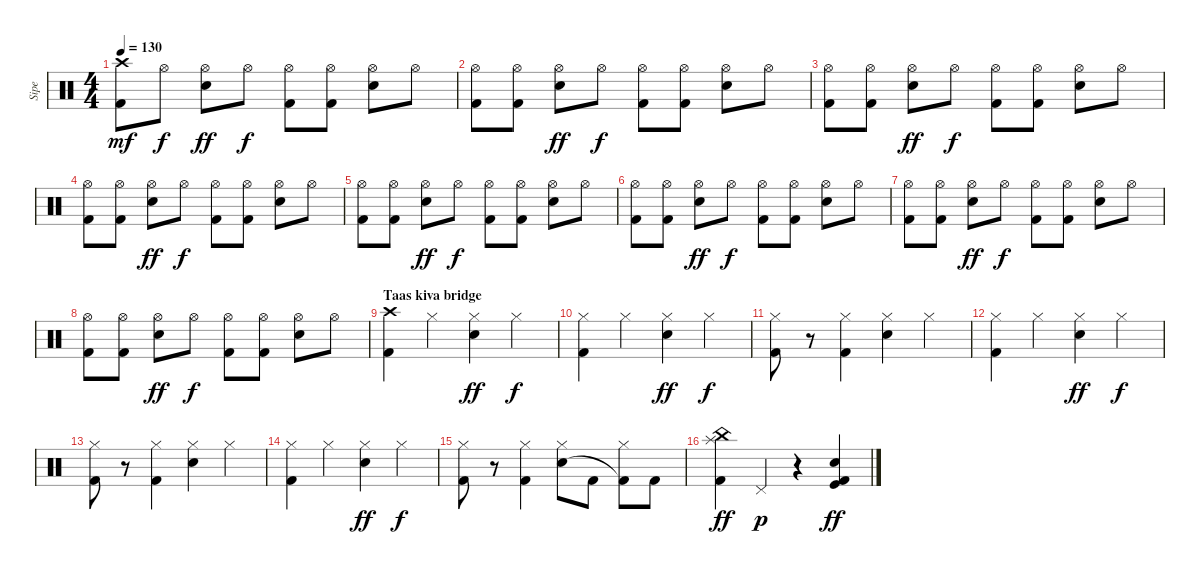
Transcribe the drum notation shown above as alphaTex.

\track ("Sipe" "Sipe") {instrument percussion}
\staff {score}
\articulation defaults
\ts (4 4)
\tempo 130
\clef neutral
\ks c
("Crash high (hit)" "Kick (hit) 2").8{dy mf} "Hi-Hat (open)".8{dy f} ("Hi-Hat (open)" "Electric Snare (hit)").8{dy ff} "Hi-Hat (open)".8{dy f} ("Hi-Hat (open)" "Kick (hit) 2").8 ("Hi-Hat (open)" "Kick (hit) 2").8 ("Hi-Hat (open)" "Electric Snare (hit)").8 "Hi-Hat (open)".8 |
("Hi-Hat (open)" "Kick (hit) 2").8 ("Hi-Hat (open)" "Kick (hit) 2").8 ("Hi-Hat (open)" "Electric Snare (hit)").8{dy ff} "Hi-Hat (open)".8{dy f} ("Hi-Hat (open)" "Kick (hit) 2").8 ("Hi-Hat (open)" "Kick (hit) 2").8 ("Hi-Hat (open)" "Electric Snare (hit)").8 "Hi-Hat (open)".8 |
("Hi-Hat (open)" "Kick (hit) 2").8 ("Hi-Hat (open)" "Kick (hit) 2").8 ("Hi-Hat (open)" "Electric Snare (hit)").8{dy ff} "Hi-Hat (open)".8{dy f} ("Hi-Hat (open)" "Kick (hit) 2").8 ("Hi-Hat (open)" "Kick (hit) 2").8 ("Hi-Hat (open)" "Electric Snare (hit)").8 "Hi-Hat (open)".8 |
("Hi-Hat (open)" "Kick (hit) 2").8 ("Hi-Hat (open)" "Kick (hit) 2").8 ("Hi-Hat (open)" "Electric Snare (hit)").8{dy ff} "Hi-Hat (open)".8{dy f} ("Hi-Hat (open)" "Kick (hit) 2").8 ("Hi-Hat (open)" "Kick (hit) 2").8 ("Hi-Hat (open)" "Electric Snare (hit)").8 "Hi-Hat (open)".8 |
("Hi-Hat (open)" "Kick (hit) 2").8 ("Hi-Hat (open)" "Kick (hit) 2").8 ("Hi-Hat (open)" "Electric Snare (hit)").8{dy ff} "Hi-Hat (open)".8{dy f} ("Hi-Hat (open)" "Kick (hit) 2").8 ("Hi-Hat (open)" "Kick (hit) 2").8 ("Hi-Hat (open)" "Electric Snare (hit)").8 "Hi-Hat (open)".8 |
("Hi-Hat (open)" "Kick (hit) 2").8 ("Hi-Hat (open)" "Kick (hit) 2").8 ("Hi-Hat (open)" "Electric Snare (hit)").8{dy ff} "Hi-Hat (open)".8{dy f} ("Hi-Hat (open)" "Kick (hit) 2").8 ("Hi-Hat (open)" "Kick (hit) 2").8 ("Hi-Hat (open)" "Electric Snare (hit)").8 "Hi-Hat (open)".8 |
("Hi-Hat (open)" "Kick (hit) 2").8 ("Hi-Hat (open)" "Kick (hit) 2").8 ("Hi-Hat (open)" "Electric Snare (hit)").8{dy ff} "Hi-Hat (open)".8{dy f} ("Hi-Hat (open)" "Kick (hit) 2").8 ("Hi-Hat (open)" "Kick (hit) 2").8 ("Hi-Hat (open)" "Electric Snare (hit)").8 "Hi-Hat (open)".8 |
("Hi-Hat (open)" "Kick (hit) 2").8 ("Hi-Hat (open)" "Kick (hit) 2").8 ("Hi-Hat (open)" "Electric Snare (hit)").8{dy ff} "Hi-Hat (open)".8{dy f} ("Hi-Hat (open)" "Kick (hit) 2").8 ("Hi-Hat (open)" "Kick (hit) 2").8 ("Hi-Hat (open)" "Electric Snare (hit)").8 "Hi-Hat (open)".8 |
\section ("" "Taas kiva bridge")
("Crash high (hit)" "Kick (hit) 2").4 "Hi-Hat (closed)".4 ("Hi-Hat (closed)" "Electric Snare (hit)").4{dy ff} "Hi-Hat (closed)".4{dy f} |
("Hi-Hat (closed)" "Kick (hit) 2").4 "Hi-Hat (closed)".4 ("Hi-Hat (closed)" "Electric Snare (hit)").4{dy ff} "Hi-Hat (closed)".4{dy f} |
("Hi-Hat (closed)" "Kick (hit) 2").8 r.8 ("Hi-Hat (closed)" "Kick (hit) 2").4 ("Hi-Hat (closed)" "Electric Snare (hit)").4 "Hi-Hat (closed)".4 |
("Hi-Hat (closed)" "Kick (hit) 2").4 "Hi-Hat (closed)".4 ("Hi-Hat (closed)" "Electric Snare (hit)").4{dy ff} "Hi-Hat (closed)".4{dy f} |
("Hi-Hat (closed)" "Kick (hit) 2").8 r.8 ("Hi-Hat (closed)" "Kick (hit) 2").4 ("Hi-Hat (closed)" "Electric Snare (hit)").4 "Hi-Hat (closed)".4 |
("Hi-Hat (closed)" "Kick (hit) 2").4 "Hi-Hat (closed)".4 ("Hi-Hat (closed)" "Electric Snare (hit)").4{dy ff} "Hi-Hat (closed)".4{dy f} |
("Hi-Hat (closed)" "Kick (hit) 2").8 r.8 ("Hi-Hat (closed)" "Kick (hit) 2").4 ("Hi-Hat (closed)" "Electric Snare (hit)").8 "Kick (hit) 2".8 ("Hi-Hat (closed)" "Kick (hit) 2"{t}).8 "Kick (hit) 2".8 |
("China (hit)" "Splash (hit)" "Kick (hit) 2").4{dy ff} "Pedal Hi-Hat (hit)".4{dy p} r.4 ("Kick (hit) 2" "Electric Snare (hit)" "Kick (hit)").4{dy ff}
